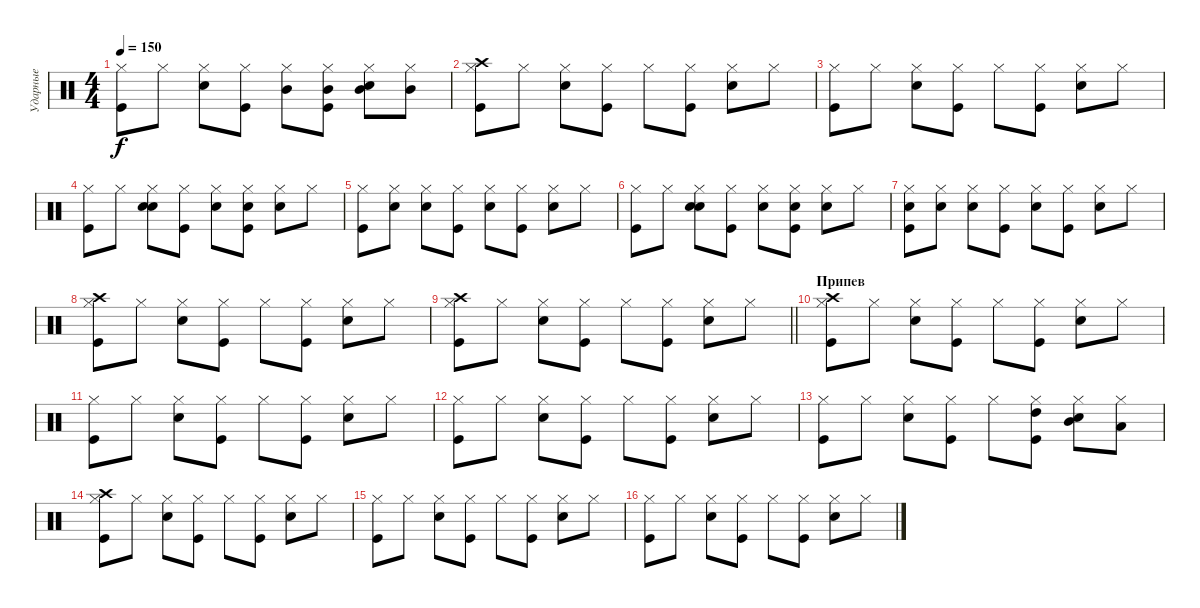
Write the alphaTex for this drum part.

\track ("Ударные" "Ударные") {instrument percussion}
\staff {score}
\articulation defaults
\ts (4 4)
\tempo 150
\clef neutral
\ks c
("Kick (hit)" "Hi-Hat (closed)").8{dy f} "Hi-Hat (closed)".8 ("Snare (hit) 2" "Hi-Hat (closed)").8 ("Kick (hit)" "Hi-Hat (closed)").8 ("Hi-Hat (closed)" "Mid Tom (hit)").8 ("Kick (hit)" "Hi-Hat (closed)" "Mid Tom (hit)").8 ("Snare (hit) 2" "Hi-Hat (closed)" "Mid Tom (hit)").8 ("Hi-Hat (closed)" "Mid Tom (hit)").8 |
("Kick (hit)" "Hi-Hat (closed)" "Crash high (hit)").8 "Hi-Hat (closed)".8 ("Snare (hit) 2" "Hi-Hat (closed)").8 ("Kick (hit)" "Hi-Hat (closed)").8 "Hi-Hat (closed)".8 ("Kick (hit)" "Hi-Hat (closed)").8 ("Snare (hit) 2" "Hi-Hat (closed)").8 "Hi-Hat (closed)".8 |
("Kick (hit)" "Hi-Hat (closed)").8 "Hi-Hat (closed)".8 ("Snare (hit) 2" "Hi-Hat (closed)").8 ("Kick (hit)" "Hi-Hat (closed)").8 "Hi-Hat (closed)".8 ("Kick (hit)" "Hi-Hat (closed)").8 ("Snare (hit) 2" "Hi-Hat (closed)").8 "Hi-Hat (closed)".8 |
("Kick (hit)" "Hi-Hat (closed)").8 "Hi-Hat (closed)".8 ("Snare (hit) 2" "Hi-Hat (closed)" "Hand Clap (hit)").8 ("Kick (hit)" "Hi-Hat (closed)").8 ("Hi-Hat (closed)" "Hand Clap (hit)").8 ("Kick (hit)" "Hi-Hat (closed)" "Hand Clap (hit)").8 ("Snare (hit) 2" "Hi-Hat (closed)").8 "Hi-Hat (closed)".8 |
("Kick (hit)" "Hi-Hat (closed)").8 ("Hi-Hat (closed)" "Hand Clap (hit)").8 ("Snare (hit) 2" "Hi-Hat (closed)").8 ("Kick (hit)" "Hi-Hat (closed)").8 ("Hi-Hat (closed)" "Hand Clap (hit)").8 ("Kick (hit)" "Hi-Hat (closed)").8 ("Snare (hit) 2" "Hi-Hat (closed)").8 "Hi-Hat (closed)".8 |
("Kick (hit)" "Hi-Hat (closed)").8 "Hi-Hat (closed)".8 ("Snare (hit) 2" "Hi-Hat (closed)" "Hand Clap (hit)").8 ("Kick (hit)" "Hi-Hat (closed)").8 ("Hi-Hat (closed)" "Hand Clap (hit)").8 ("Kick (hit)" "Hi-Hat (closed)" "Hand Clap (hit)").8 ("Snare (hit) 2" "Hi-Hat (closed)").8 "Hi-Hat (closed)".8 |
("Kick (hit)" "Hi-Hat (closed)" "Hand Clap (hit)").8 ("Hi-Hat (closed)" "Hand Clap (hit)").8 ("Snare (hit) 2" "Hi-Hat (closed)").8 ("Kick (hit)" "Hi-Hat (closed)").8 ("Hi-Hat (closed)" "Hand Clap (hit)").8 ("Kick (hit)" "Hi-Hat (closed)").8 ("Snare (hit) 2" "Hi-Hat (closed)").8 "Hi-Hat (closed)".8 |
("Kick (hit)" "Hi-Hat (closed)" "Crash high (hit)").8 "Hi-Hat (closed)".8 ("Snare (hit) 2" "Hi-Hat (closed)").8 ("Kick (hit)" "Hi-Hat (closed)").8 "Hi-Hat (closed)".8 ("Kick (hit)" "Hi-Hat (closed)").8 ("Snare (hit) 2" "Hi-Hat (closed)").8 "Hi-Hat (closed)".8 |
\barLineRight lightlight
("Kick (hit)" "Hi-Hat (closed)" "Crash high (hit)").8 "Hi-Hat (closed)".8 ("Snare (hit) 2" "Hi-Hat (closed)").8 ("Kick (hit)" "Hi-Hat (closed)").8 "Hi-Hat (closed)".8 ("Kick (hit)" "Hi-Hat (closed)").8 ("Snare (hit) 2" "Hi-Hat (closed)").8 "Hi-Hat (closed)".8 |
\section ("" "Припев")
("Kick (hit)" "Hi-Hat (closed)" "Crash high (hit)").8 "Hi-Hat (closed)".8 ("Snare (hit) 2" "Hi-Hat (closed)").8 ("Kick (hit)" "Hi-Hat (closed)").8 "Hi-Hat (closed)".8 ("Kick (hit)" "Hi-Hat (closed)").8 ("Snare (hit) 2" "Hi-Hat (closed)").8 "Hi-Hat (closed)".8 |
("Kick (hit)" "Hi-Hat (closed)").8 "Hi-Hat (closed)".8 ("Snare (hit) 2" "Hi-Hat (closed)").8 ("Kick (hit)" "Hi-Hat (closed)").8 "Hi-Hat (closed)".8 ("Kick (hit)" "Hi-Hat (closed)").8 ("Snare (hit) 2" "Hi-Hat (closed)").8 "Hi-Hat (closed)".8 |
("Kick (hit)" "Hi-Hat (closed)").8 "Hi-Hat (closed)".8 ("Snare (hit) 2" "Hi-Hat (closed)").8 ("Kick (hit)" "Hi-Hat (closed)").8 "Hi-Hat (closed)".8 ("Kick (hit)" "Hi-Hat (closed)").8 ("Snare (hit) 2" "Hi-Hat (closed)").8 "Hi-Hat (closed)".8 |
("Kick (hit)" "Hi-Hat (closed)").8 "Hi-Hat (closed)".8 ("Snare (hit) 2" "Hi-Hat (closed)").8 ("Kick (hit)" "Hi-Hat (closed)").8 "Hi-Hat (closed)".8 ("Kick (hit)" "Hi-Hat (closed)" "High Tom (hit)").8 ("Snare (hit) 2" "Hi-Hat (closed)" "Mid Tom (hit)").8 ("Hi-Hat (closed)" "Low Tom (hit)").8 |
("Kick (hit)" "Hi-Hat (closed)" "Crash high (hit)").8 "Hi-Hat (closed)".8 ("Snare (hit) 2" "Hi-Hat (closed)").8 ("Kick (hit)" "Hi-Hat (closed)").8 "Hi-Hat (closed)".8 ("Kick (hit)" "Hi-Hat (closed)").8 ("Snare (hit) 2" "Hi-Hat (closed)").8 "Hi-Hat (closed)".8 |
("Kick (hit)" "Hi-Hat (closed)").8 "Hi-Hat (closed)".8 ("Snare (hit) 2" "Hi-Hat (closed)").8 ("Kick (hit)" "Hi-Hat (closed)").8 "Hi-Hat (closed)".8 ("Kick (hit)" "Hi-Hat (closed)").8 ("Snare (hit) 2" "Hi-Hat (closed)").8 "Hi-Hat (closed)".8 |
("Kick (hit)" "Hi-Hat (closed)").8 "Hi-Hat (closed)".8 ("Snare (hit) 2" "Hi-Hat (closed)").8 ("Kick (hit)" "Hi-Hat (closed)").8 "Hi-Hat (closed)".8 ("Kick (hit)" "Hi-Hat (closed)").8 ("Snare (hit) 2" "Hi-Hat (closed)").8 "Hi-Hat (closed)".8
